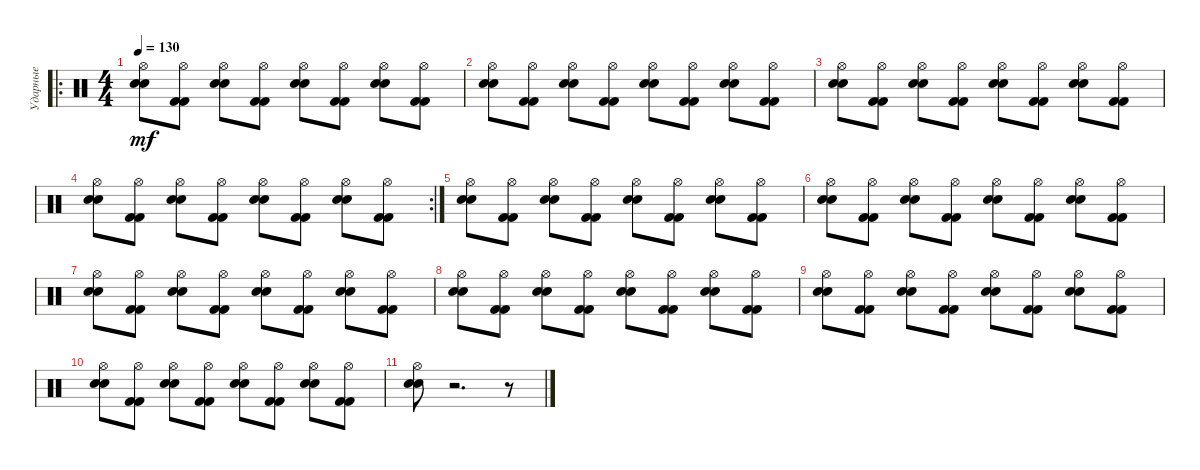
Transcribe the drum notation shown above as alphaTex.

\track ("Ударные" "Ударные") {instrument percussion}
\staff {score}
\articulation defaults
\ro
\ts (4 4)
\tempo 130
\clef neutral
\ks c
("Electric Snare (hit)" "Snare (hit) 2" "Hi-Hat (open)").8{dy mf} ("Kick (hit) 2" "Kick (hit) 2" "Hi-Hat (open)").8 ("Electric Snare (hit)" "Snare (hit) 2" "Hi-Hat (open)").8 ("Kick (hit) 2" "Kick (hit) 2" "Hi-Hat (open)").8 ("Electric Snare (hit)" "Snare (hit) 2" "Hi-Hat (open)").8 ("Kick (hit) 2" "Kick (hit) 2" "Hi-Hat (open)").8 ("Electric Snare (hit)" "Snare (hit) 2" "Hi-Hat (open)").8 ("Kick (hit) 2" "Kick (hit) 2" "Hi-Hat (open)").8 |
("Electric Snare (hit)" "Snare (hit) 2" "Hi-Hat (open)").8 ("Kick (hit) 2" "Kick (hit) 2" "Hi-Hat (open)").8 ("Electric Snare (hit)" "Snare (hit) 2" "Hi-Hat (open)").8 ("Kick (hit) 2" "Kick (hit) 2" "Hi-Hat (open)").8 ("Electric Snare (hit)" "Snare (hit) 2" "Hi-Hat (open)").8 ("Kick (hit) 2" "Kick (hit) 2" "Hi-Hat (open)").8 ("Electric Snare (hit)" "Snare (hit) 2" "Hi-Hat (open)").8 ("Kick (hit) 2" "Kick (hit) 2" "Hi-Hat (open)").8 |
("Electric Snare (hit)" "Snare (hit) 2" "Hi-Hat (open)").8 ("Kick (hit) 2" "Kick (hit) 2" "Hi-Hat (open)").8 ("Electric Snare (hit)" "Snare (hit) 2" "Hi-Hat (open)").8 ("Kick (hit) 2" "Kick (hit) 2" "Hi-Hat (open)").8 ("Electric Snare (hit)" "Snare (hit) 2" "Hi-Hat (open)").8 ("Kick (hit) 2" "Kick (hit) 2" "Hi-Hat (open)").8 ("Electric Snare (hit)" "Snare (hit) 2" "Hi-Hat (open)").8 ("Kick (hit) 2" "Kick (hit) 2" "Hi-Hat (open)").8 |
\rc 2
("Electric Snare (hit)" "Snare (hit) 2" "Hi-Hat (open)").8 ("Kick (hit) 2" "Kick (hit) 2" "Hi-Hat (open)").8 ("Electric Snare (hit)" "Snare (hit) 2" "Hi-Hat (open)").8 ("Kick (hit) 2" "Kick (hit) 2" "Hi-Hat (open)").8 ("Electric Snare (hit)" "Snare (hit) 2" "Hi-Hat (open)").8 ("Kick (hit) 2" "Kick (hit) 2" "Hi-Hat (open)").8 ("Electric Snare (hit)" "Snare (hit) 2" "Hi-Hat (open)").8 ("Kick (hit) 2" "Kick (hit) 2" "Hi-Hat (open)").8 |
("Electric Snare (hit)" "Snare (hit) 2" "Hi-Hat (open)").8 ("Kick (hit) 2" "Kick (hit) 2" "Hi-Hat (open)").8 ("Electric Snare (hit)" "Snare (hit) 2" "Hi-Hat (open)").8 ("Kick (hit) 2" "Kick (hit) 2" "Hi-Hat (open)").8 ("Electric Snare (hit)" "Snare (hit) 2" "Hi-Hat (open)").8 ("Kick (hit) 2" "Kick (hit) 2" "Hi-Hat (open)").8 ("Electric Snare (hit)" "Snare (hit) 2" "Hi-Hat (open)").8 ("Kick (hit) 2" "Kick (hit) 2" "Hi-Hat (open)").8 |
("Electric Snare (hit)" "Snare (hit) 2" "Hi-Hat (open)").8 ("Kick (hit) 2" "Kick (hit) 2" "Hi-Hat (open)").8 ("Electric Snare (hit)" "Snare (hit) 2" "Hi-Hat (open)").8 ("Kick (hit) 2" "Kick (hit) 2" "Hi-Hat (open)").8 ("Electric Snare (hit)" "Snare (hit) 2" "Hi-Hat (open)").8 ("Kick (hit) 2" "Kick (hit) 2" "Hi-Hat (open)").8 ("Electric Snare (hit)" "Snare (hit) 2" "Hi-Hat (open)").8 ("Kick (hit) 2" "Kick (hit) 2" "Hi-Hat (open)").8 |
("Electric Snare (hit)" "Snare (hit) 2" "Hi-Hat (open)").8 ("Kick (hit) 2" "Kick (hit) 2" "Hi-Hat (open)").8 ("Electric Snare (hit)" "Snare (hit) 2" "Hi-Hat (open)").8 ("Kick (hit) 2" "Kick (hit) 2" "Hi-Hat (open)").8 ("Electric Snare (hit)" "Snare (hit) 2" "Hi-Hat (open)").8 ("Kick (hit) 2" "Kick (hit) 2" "Hi-Hat (open)").8 ("Electric Snare (hit)" "Snare (hit) 2" "Hi-Hat (open)").8 ("Kick (hit) 2" "Kick (hit) 2" "Hi-Hat (open)").8 |
("Electric Snare (hit)" "Snare (hit) 2" "Hi-Hat (open)").8 ("Kick (hit) 2" "Kick (hit) 2" "Hi-Hat (open)").8 ("Electric Snare (hit)" "Snare (hit) 2" "Hi-Hat (open)").8 ("Kick (hit) 2" "Kick (hit) 2" "Hi-Hat (open)").8 ("Electric Snare (hit)" "Snare (hit) 2" "Hi-Hat (open)").8 ("Kick (hit) 2" "Kick (hit) 2" "Hi-Hat (open)").8 ("Electric Snare (hit)" "Snare (hit) 2" "Hi-Hat (open)").8 ("Kick (hit) 2" "Kick (hit) 2" "Hi-Hat (open)").8 |
("Electric Snare (hit)" "Snare (hit) 2" "Hi-Hat (open)").8 ("Kick (hit) 2" "Kick (hit) 2" "Hi-Hat (open)").8 ("Electric Snare (hit)" "Snare (hit) 2" "Hi-Hat (open)").8 ("Kick (hit) 2" "Kick (hit) 2" "Hi-Hat (open)").8 ("Electric Snare (hit)" "Snare (hit) 2" "Hi-Hat (open)").8 ("Kick (hit) 2" "Kick (hit) 2" "Hi-Hat (open)").8 ("Electric Snare (hit)" "Snare (hit) 2" "Hi-Hat (open)").8 ("Kick (hit) 2" "Kick (hit) 2" "Hi-Hat (open)").8 |
("Electric Snare (hit)" "Snare (hit) 2" "Hi-Hat (open)").8 ("Kick (hit) 2" "Kick (hit) 2" "Hi-Hat (open)").8 ("Electric Snare (hit)" "Snare (hit) 2" "Hi-Hat (open)").8 ("Kick (hit) 2" "Kick (hit) 2" "Hi-Hat (open)").8 ("Electric Snare (hit)" "Snare (hit) 2" "Hi-Hat (open)").8 ("Kick (hit) 2" "Kick (hit) 2" "Hi-Hat (open)").8 ("Electric Snare (hit)" "Snare (hit) 2" "Hi-Hat (open)").8 ("Kick (hit) 2" "Kick (hit) 2" "Hi-Hat (open)").8 |
("Electric Snare (hit)" "Snare (hit) 2" "Hi-Hat (open)").8 r.2{d} r.8
